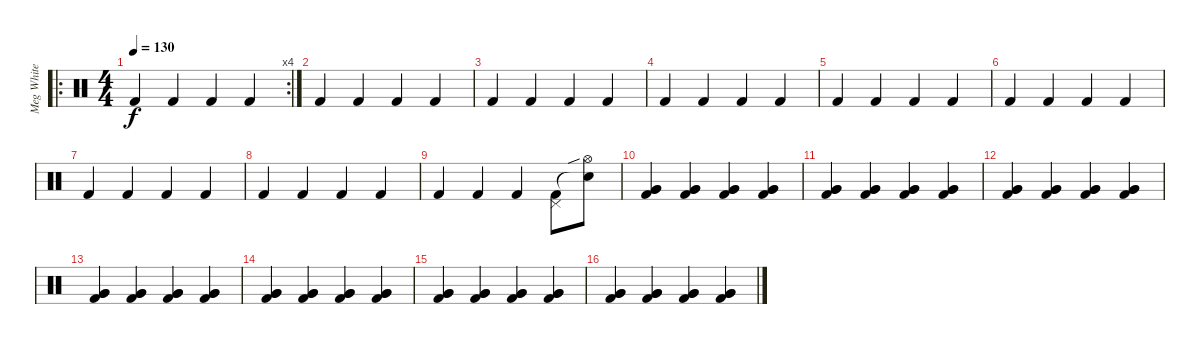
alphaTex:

\track ("Meg White" "Meg White") {instrument percussion}
\staff {score}
\articulation defaults
\ro
\rc 4
\ts (4 4)
\tempo 130
\clef neutral
\ks c "Kick (hit) 2".4{dy f} "Kick (hit) 2".4 "Kick (hit) 2".4 "Kick (hit) 2".4
|
"Kick (hit) 2".4 "Kick (hit) 2".4 "Kick (hit) 2".4 "Kick (hit) 2".4 |
"Kick (hit) 2".4 "Kick (hit) 2".4 "Kick (hit) 2".4 "Kick (hit) 2".4 |
"Kick (hit) 2".4 "Kick (hit) 2".4 "Kick (hit) 2".4 "Kick (hit) 2".4 |
"Kick (hit) 2".4 "Kick (hit) 2".4 "Kick (hit) 2".4 "Kick (hit) 2".4 |
"Kick (hit) 2".4 "Kick (hit) 2".4 "Kick (hit) 2".4 "Kick (hit) 2".4 |
"Kick (hit) 2".4 "Kick (hit) 2".4 "Kick (hit) 2".4 "Kick (hit) 2".4 |
"Kick (hit) 2".4 "Kick (hit) 2".4 "Kick (hit) 2".4 "Kick (hit) 2".4 |
"Kick (hit) 2".4 "Kick (hit) 2".4 "Kick (hit) 2".4 ("Pedal Hi-Hat (hit)" "Kick (hit) 2").8 ("Hi-Hat (open)"{sib} "Snare (hit)"{t}).8 |
("Very Low Tom (hit)" "Kick (hit) 2" "Very Low Tom (hit)").4 ("Very Low Tom (hit)" "Kick (hit) 2" "Very Low Tom (hit)").4 ("Very Low Tom (hit)" "Kick (hit) 2" "Very Low Tom (hit)").4 ("Very Low Tom (hit)" "Kick (hit) 2" "Very Low Tom (hit)").4 |
("Very Low Tom (hit)" "Kick (hit) 2" "Very Low Tom (hit)").4 ("Very Low Tom (hit)" "Kick (hit) 2" "Very Low Tom (hit)").4 ("Very Low Tom (hit)" "Kick (hit) 2" "Very Low Tom (hit)").4 ("Very Low Tom (hit)" "Kick (hit) 2" "Very Low Tom (hit)").4 |
("Very Low Tom (hit)" "Kick (hit) 2" "Very Low Tom (hit)").4 ("Very Low Tom (hit)" "Kick (hit) 2" "Very Low Tom (hit)").4 ("Very Low Tom (hit)" "Kick (hit) 2" "Very Low Tom (hit)").4 ("Very Low Tom (hit)" "Kick (hit) 2" "Very Low Tom (hit)").4 |
("Very Low Tom (hit)" "Kick (hit) 2" "Very Low Tom (hit)").4 ("Very Low Tom (hit)" "Kick (hit) 2" "Very Low Tom (hit)").4 ("Very Low Tom (hit)" "Kick (hit) 2" "Very Low Tom (hit)").4 ("Very Low Tom (hit)" "Kick (hit) 2" "Very Low Tom (hit)").4 |
("Very Low Tom (hit)" "Kick (hit) 2" "Very Low Tom (hit)").4 ("Very Low Tom (hit)" "Kick (hit) 2" "Very Low Tom (hit)").4 ("Very Low Tom (hit)" "Kick (hit) 2" "Very Low Tom (hit)").4 ("Very Low Tom (hit)" "Kick (hit) 2" "Very Low Tom (hit)").4 |
("Very Low Tom (hit)" "Kick (hit) 2" "Very Low Tom (hit)").4 ("Very Low Tom (hit)" "Kick (hit) 2" "Very Low Tom (hit)").4 ("Very Low Tom (hit)" "Kick (hit) 2" "Very Low Tom (hit)").4 ("Very Low Tom (hit)" "Kick (hit) 2" "Very Low Tom (hit)").4 |
("Very Low Tom (hit)" "Kick (hit) 2" "Very Low Tom (hit)").4 ("Very Low Tom (hit)" "Kick (hit) 2" "Very Low Tom (hit)").4 ("Very Low Tom (hit)" "Kick (hit) 2" "Very Low Tom (hit)").4 ("Very Low Tom (hit)" "Kick (hit) 2" "Very Low Tom (hit)").4
